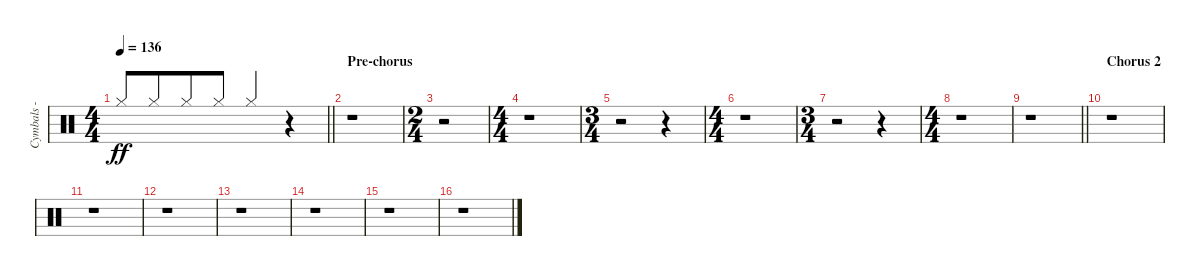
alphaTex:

\track ("Cymbals - hi-hat" "Cymbals - ") {instrument percussion}
\staff {score}
\articulation defaults
\ts (4 4)
\tempo 136
\clef neutral
\barLineRight lightlight
\ks c "Hi-Hat (closed)".8{dy ff beam Up} "Hi-Hat (closed)".8{beam Up beam merge} "Hi-Hat (closed)".8{beam Up} "Hi-Hat (closed)".8{beam Up} "Hi-Hat (closed)".4{beam Up}
r.4 |
\section ("" "Pre-chorus")
r.1 |
\ts (2 4)
r.2 |
\ts (4 4)
r.1 |
\ts (3 4)
r.2 r.4 |
\ts (4 4)
r.1 |
\ts (3 4)
r.2 r.4 |
\ts (4 4)
r.1 |
\barLineRight lightlight
r.1 |
\section ("" "Chorus 2")
r.1 |
r.1 |
r.1 |
r.1 |
r.1 |
r.1 |
r.1
